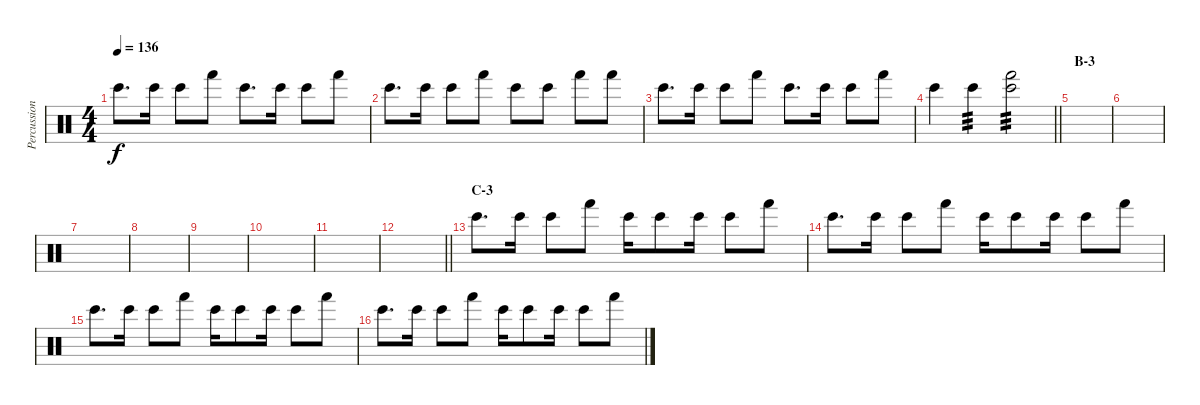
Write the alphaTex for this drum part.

\track ("Percussion" "Percussion") {instrument percussion}
\staff {score}
\articulation defaults
\ts (4 4)
\tempo 136
\clef neutral
\ks c "Bongo High (hit)".8{d dy f} "Bongo High (hit)".16 "Bongo High (hit)".8 "Hand (hit)".8 "Bongo High (hit)".8{d} "Bongo High (hit)".16 "Bongo High (hit)".8 "Hand (hit)".8
|
"Bongo High (hit)".8{d} "Bongo High (hit)".16 "Bongo High (hit)".8 "Hand (hit)".8 "Bongo High (hit)".8 "Bongo High (hit)".8 "Hand (hit)".8 "Hand (hit)".8 |
"Bongo High (hit)".8{d} "Bongo High (hit)".16 "Bongo High (hit)".8 "Hand (hit)".8 "Bongo High (hit)".8{d} "Bongo High (hit)".16 "Bongo High (hit)".8 "Hand (hit)".8 |
\barLineRight lightlight "Bongo High (hit)".4 "Bongo High (hit)".4{tp 3}
("Bongo High (hit)" "Hand (hit)").2{tp 3} |
\section ("" "B-3")
|
|
|
|
|
|
|
\barLineRight lightlight
|
\section ("" "C-3")
"Bongo High (hit)".8{d} "Bongo High (hit)".16 "Bongo High (hit)".8 "Hand (hit)".8 "Bongo High (hit)".16 "Bongo High (hit)".8 "Bongo High (hit)".16 "Bongo High (hit)".8 "Hand (hit)".8 |
"Bongo High (hit)".8{d} "Bongo High (hit)".16 "Bongo High (hit)".8 "Hand (hit)".8 "Bongo High (hit)".16 "Bongo High (hit)".8 "Bongo High (hit)".16 "Bongo High (hit)".8 "Hand (hit)".8 |
"Bongo High (hit)".8{d} "Bongo High (hit)".16 "Bongo High (hit)".8 "Hand (hit)".8 "Bongo High (hit)".16 "Bongo High (hit)".8 "Bongo High (hit)".16 "Bongo High (hit)".8 "Hand (hit)".8 |
"Bongo High (hit)".8{d} "Bongo High (hit)".16 "Bongo High (hit)".8 "Hand (hit)".8 "Bongo High (hit)".16 "Bongo High (hit)".8 "Bongo High (hit)".16 "Bongo High (hit)".8 "Hand (hit)".8
